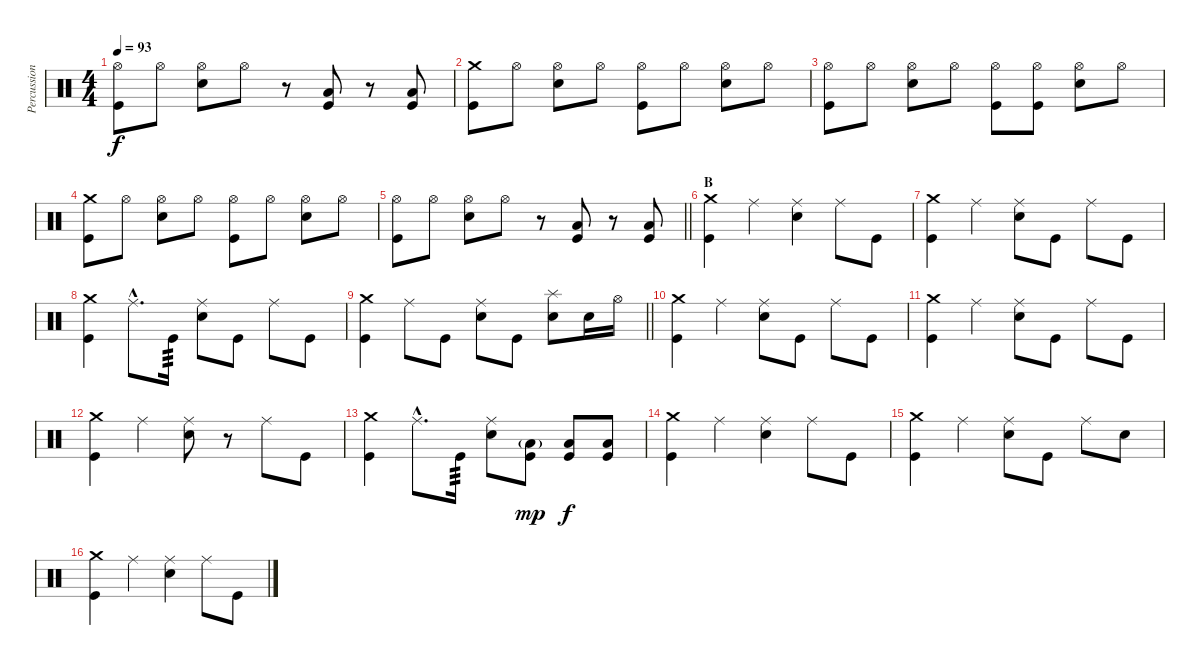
\track ("Percussion" "Percussion") {instrument percussion}
\staff {score}
\articulation defaults
\ts (4 4)
\tempo 93
\clef neutral
\ks c
("Kick (hit)" "Hi-Hat (open)").8{dy f} "Hi-Hat (open)".8 ("Snare (hit) 2" "Hi-Hat (open)").8 "Hi-Hat (open)".8 r.8 ("Kick (hit)" "Low Floor Tom (hit)").8 r.8 ("Kick (hit)" "Low Floor Tom (hit)").8 |
("Kick (hit)" "Crash medium (hit)").8 "Hi-Hat (open)".8 ("Snare (hit) 2" "Hi-Hat (open)").8 "Hi-Hat (open)".8 ("Kick (hit)" "Hi-Hat (open)").8 "Hi-Hat (open)".8 ("Snare (hit) 2" "Hi-Hat (open)").8 "Hi-Hat (open)".8 |
("Kick (hit)" "Hi-Hat (open)").8 "Hi-Hat (open)".8 ("Snare (hit) 2" "Hi-Hat (open)").8 "Hi-Hat (open)".8 ("Kick (hit)" "Hi-Hat (open)").8 ("Kick (hit)" "Hi-Hat (open)").8 ("Snare (hit) 2" "Hi-Hat (open)").8 "Hi-Hat (open)".8 |
("Kick (hit)" "Crash medium (hit)").8 "Hi-Hat (open)".8 ("Snare (hit) 2" "Hi-Hat (open)").8 "Hi-Hat (open)".8 ("Kick (hit)" "Hi-Hat (open)").8 "Hi-Hat (open)".8 ("Snare (hit) 2" "Hi-Hat (open)").8 "Hi-Hat (open)".8 |
\barLineRight lightlight
("Kick (hit)" "Hi-Hat (open)").8 "Hi-Hat (open)".8 ("Snare (hit) 2" "Hi-Hat (open)").8 "Hi-Hat (open)".8 r.8 ("Kick (hit)" "Low Floor Tom (hit)").8 r.8 ("Kick (hit)" "Low Floor Tom (hit)").8 |
\section ("" "B")
("Kick (hit)" "Crash medium (hit)").4 "Ride (middle)".4 ("Ride (middle)" "Snare (hit) 2").4 "Ride (middle)".8 "Kick (hit)".8 |
("Kick (hit)" "Crash medium (hit)").4 "Ride (middle)".4 ("Ride (middle)" "Snare (hit) 2").8 "Kick (hit)".8 "Ride (middle)".8 "Kick (hit)".8 |
("Kick (hit)" "Crash medium (hit)").4 "Ride (middle)"{hac}.8{d} "Kick (hit)".16{tp 3} ("Ride (middle)" "Snare (hit) 2").8 "Kick (hit)".8 "Ride (middle)".8 "Kick (hit)".8 |
\barLineRight lightlight
("Kick (hit)" "Crash medium (hit)").4 "Ride (middle)".8 "Kick (hit)".8 ("Snare (hit) 2" "Ride (middle)").8 "Kick (hit)".8 ("Snare (hit) 2" "Splash (hit)").8 "Snare (hit) 2".16 "Hi-Hat (open)".16 |
("Kick (hit)" "Crash medium (hit)").4 "Ride (middle)".4 ("Ride (middle)" "Snare (hit) 2").8 "Kick (hit)".8 "Ride (middle)".8 "Kick (hit)".8 |
("Kick (hit)" "Crash medium (hit)").4 "Ride (middle)".4 ("Ride (middle)" "Snare (hit) 2").8 "Kick (hit)".8 "Ride (middle)".8 "Kick (hit)".8 |
("Kick (hit)" "Crash medium (hit)").4 "Ride (middle)".4 ("Ride (middle)" "Snare (hit) 2").8 r.8 "Ride (middle)".8 "Kick (hit)".8 |
("Kick (hit)" "Crash medium (hit)").4 "Ride (middle)"{hac}.8{d} "Kick (hit)".16{tp 3} ("Ride (middle)" "Snare (hit) 2").8 ("Kick (hit)" "Low Floor Tom (hit)"{g}).8{dy mp} ("Kick (hit)" "Low Floor Tom (hit)").8{dy f} ("Kick (hit)" "Low Floor Tom (hit)").8 |
("Kick (hit)" "Crash medium (hit)").4 "Ride (middle)".4 ("Ride (middle)" "Snare (hit) 2").4 "Ride (middle)".8 "Kick (hit)".8 |
("Kick (hit)" "Crash medium (hit)").4 "Ride (middle)".4 ("Ride (middle)" "Snare (hit) 2").8 "Kick (hit)".8 "Ride (middle)".8 "Snare (hit) 2".8 |
("Kick (hit)" "Crash medium (hit)").4 "Ride (middle)".4 ("Ride (middle)" "Snare (hit) 2").4 "Ride (middle)".8 "Kick (hit)".8
